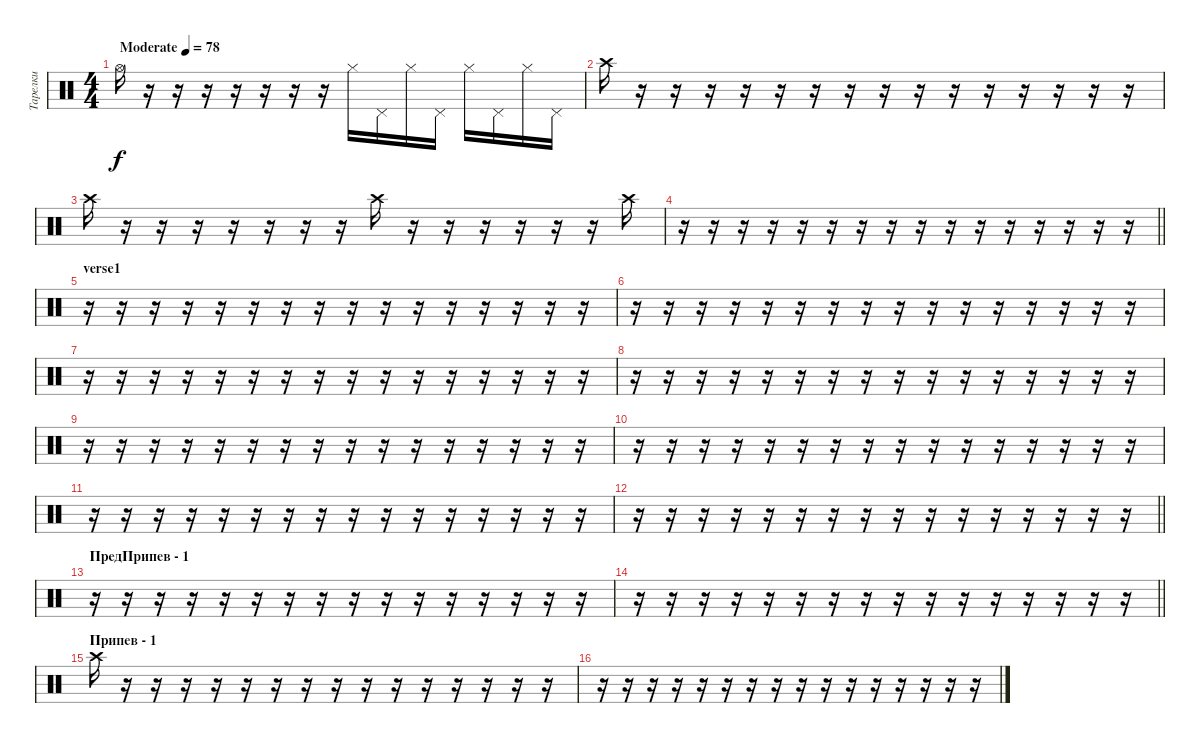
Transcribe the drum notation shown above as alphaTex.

\track ("Тарелки" "Тарелки") {instrument percussion}
\staff {score}
\articulation defaults
\ts (4 4)
\tempo (78 "Moderate")
\clef neutral
\ks c "Hi-Hat (open)".16{dy f}
r.16 r.16 r.16 r.16 r.16 r.16 r.16 "Hi-Hat (closed)".16 "Pedal Hi-Hat (hit)".16 "Hi-Hat (closed)".16 "Pedal Hi-Hat (hit)".16 "Hi-Hat (closed)".16 "Pedal Hi-Hat (hit)".16 "Hi-Hat (closed)".16 "Pedal Hi-Hat (hit)".16 |
"Crash high (hit)".16 r.16 r.16 r.16 r.16 r.16 r.16 r.16 r.16 r.16 r.16 r.16 r.16 r.16 r.16 r.16 |
"Crash high (hit)".16 r.16 r.16 r.16 r.16 r.16 r.16 r.16 "Crash high (hit)".16 r.16 r.16 r.16 r.16 r.16 r.16 "Crash high (hit)".16 |
\barLineRight lightlight
r.16 r.16 r.16 r.16 r.16 r.16 r.16 r.16 r.16 r.16 r.16 r.16 r.16 r.16 r.16 r.16 |
\section ("" "verse1")
r.16 r.16 r.16 r.16 r.16 r.16 r.16 r.16 r.16 r.16 r.16 r.16 r.16 r.16 r.16 r.16 |
r.16 r.16 r.16 r.16 r.16 r.16 r.16 r.16 r.16 r.16 r.16 r.16 r.16 r.16 r.16 r.16 |
r.16 r.16 r.16 r.16 r.16 r.16 r.16 r.16 r.16 r.16 r.16 r.16 r.16 r.16 r.16 r.16 |
r.16 r.16 r.16 r.16 r.16 r.16 r.16 r.16 r.16 r.16 r.16 r.16 r.16 r.16 r.16 r.16 |
r.16 r.16 r.16 r.16 r.16 r.16 r.16 r.16 r.16 r.16 r.16 r.16 r.16 r.16 r.16 r.16 |
r.16 r.16 r.16 r.16 r.16 r.16 r.16 r.16 r.16 r.16 r.16 r.16 r.16 r.16 r.16 r.16 |
r.16 r.16 r.16 r.16 r.16 r.16 r.16 r.16 r.16 r.16 r.16 r.16 r.16 r.16 r.16 r.16 |
\barLineRight lightlight
r.16 r.16 r.16 r.16 r.16 r.16 r.16 r.16 r.16 r.16 r.16 r.16 r.16 r.16 r.16 r.16 |
\section ("" "ПредПрипев - 1")
r.16 r.16 r.16 r.16 r.16 r.16 r.16 r.16 r.16 r.16 r.16 r.16 r.16 r.16 r.16 r.16 |
\barLineRight lightlight
r.16 r.16 r.16 r.16 r.16 r.16 r.16 r.16 r.16 r.16 r.16 r.16 r.16 r.16 r.16 r.16 |
\section ("" "Припев - 1")
"Crash high (hit)".16 r.16 r.16 r.16 r.16 r.16 r.16 r.16 r.16 r.16 r.16 r.16 r.16 r.16 r.16 r.16 |
r.16 r.16 r.16 r.16 r.16 r.16 r.16 r.16 r.16 r.16 r.16 r.16 r.16 r.16 r.16 r.16
